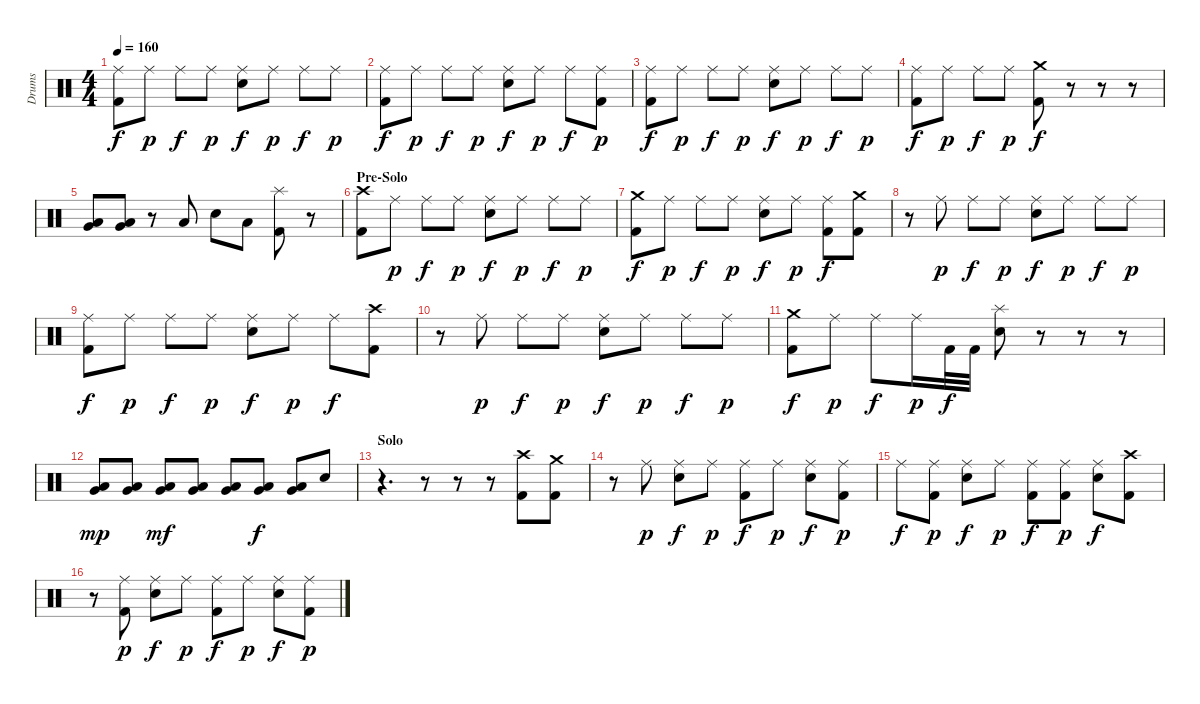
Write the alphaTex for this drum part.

\track ("Drums" "Drums") {instrument percussion}
\staff {score}
\articulation defaults
\ts (4 4)
\tempo 160
\clef neutral
\ks c
("Ride (middle)" "Kick (hit) 2").8{dy f} "Ride (middle)".8{dy p} "Ride (middle)".8{dy f} "Ride (middle)".8{dy p} ("Ride (middle)" "Snare (hit) 2").8{dy f} "Ride (middle)".8{dy p} "Ride (middle)".8{dy f} "Ride (middle)".8{dy p} |
("Ride (middle)" "Kick (hit) 2").8{dy f} "Ride (middle)".8{dy p} "Ride (middle)".8{dy f} "Ride (middle)".8{dy p} ("Ride (middle)" "Snare (hit) 2").8{dy f} "Ride (middle)".8{dy p} "Ride (middle)".8{dy f} ("Ride (middle)" "Kick (hit) 2").8{dy p} |
("Ride (middle)" "Kick (hit) 2").8{dy f} "Ride (middle)".8{dy p} "Ride (middle)".8{dy f} "Ride (middle)".8{dy p} ("Ride (middle)" "Snare (hit) 2").8{dy f} "Ride (middle)".8{dy p} "Ride (middle)".8{dy f} "Ride (middle)".8{dy p} |
("Ride (middle)" "Kick (hit) 2").8{dy f} "Ride (middle)".8{dy p} "Ride (middle)".8{dy f} "Ride (middle)".8{dy p} ("Crash medium (hit)" "Kick (hit) 2").8{dy f} r.8 r.8 r.8 |
("Very Low Tom (hit)" "Low Floor Tom (hit)").8 ("Very Low Tom (hit)" "Low Floor Tom (hit)").8 r.8 "Low Tom (hit)".8 "Snare (hit) 2".8 "Low Tom (hit)".8 ("Splash (hit)" "Kick (hit) 2").8 r.8 |
\section ("" "Pre-Solo")
("Crash high (hit)" "Kick (hit) 2").8 "Ride (middle)".8{dy p} "Ride (middle)".8{dy f} "Ride (middle)".8{dy p} ("Ride (middle)" "Snare (hit) 2").8{dy f} "Ride (middle)".8{dy p} "Ride (middle)".8{dy f} "Ride (middle)".8{dy p} |
("Crash medium (hit)" "Kick (hit) 2").8{dy f} "Ride (middle)".8{dy p} "Ride (middle)".8{dy f} "Ride (middle)".8{dy p} ("Ride (middle)" "Snare (hit) 2").8{dy f} "Ride (middle)".8{dy p} ("Ride (middle)" "Kick (hit) 2").8{dy f} ("Crash medium (hit)" "Kick (hit) 2").8 |
r.8 "Ride (middle)".8{dy p} "Ride (middle)".8{dy f} "Ride (middle)".8{dy p} ("Ride (middle)" "Snare (hit) 2").8{dy f} "Ride (middle)".8{dy p} "Ride (middle)".8{dy f} "Ride (middle)".8{dy p} |
("Ride (middle)" "Kick (hit) 2").8{dy f} "Ride (middle)".8{dy p} "Ride (middle)".8{dy f} "Ride (middle)".8{dy p} ("Ride (middle)" "Snare (hit) 2").8{dy f} "Ride (middle)".8{dy p} "Ride (middle)".8{dy f} ("Crash high (hit)" "Kick (hit) 2").8 |
r.8 "Ride (middle)".8{dy p} "Ride (middle)".8{dy f} "Ride (middle)".8{dy p} ("Ride (middle)" "Snare (hit) 2").8{dy f} "Ride (middle)".8{dy p} "Ride (middle)".8{dy f} "Ride (middle)".8{dy p} |
("Crash medium (hit)" "Kick (hit) 2").8{dy f} "Ride (middle)".8{dy p} "Ride (middle)".8{dy f} "Ride (middle)".16{dy p} "Kick (hit) 2".32{dy f} "Kick (hit) 2".32 ("Splash (hit)" "Snare (hit) 2").8 r.8 r.8 r.8 |
("Low Tom (hit)" "Very Low Tom (hit)").8{dy mp} ("Low Tom (hit)" "Very Low Tom (hit)").8 ("Low Tom (hit)" "Very Low Tom (hit)").8{dy mf} ("Low Tom (hit)" "Very Low Tom (hit)").8 ("Low Tom (hit)" "Very Low Tom (hit)").8 ("Low Tom (hit)" "Very Low Tom (hit)").8{dy f} ("Low Tom (hit)" "Very Low Tom (hit)").8 "Snare (hit) 2".8 |
\section ("" "Solo")
r.4{d} r.8 r.8 r.8 ("Crash high (hit)" "Kick (hit) 2").8 ("Crash medium (hit)" "Kick (hit) 2").8 |
r.8 "Ride (middle)".8{dy p} ("Ride (middle)" "Snare (hit) 2").8{dy f} "Ride (middle)".8{dy p} ("Ride (middle)" "Kick (hit) 2").8{dy f} "Ride (middle)".8{dy p} ("Ride (middle)" "Snare (hit) 2").8{dy f} ("Ride (middle)" "Kick (hit) 2").8{dy p} |
"Ride (middle)".8{dy f} ("Ride (middle)" "Kick (hit) 2").8{dy p} ("Ride (middle)" "Snare (hit) 2").8{dy f} "Ride (middle)".8{dy p} ("Ride (middle)" "Kick (hit) 2").8{dy f} ("Ride (middle)" "Kick (hit) 2").8{dy p} ("Ride (middle)" "Snare (hit) 2").8{dy f} ("Crash high (hit)" "Kick (hit) 2").8 |
r.8 ("Ride (middle)" "Kick (hit) 2").8{dy p} ("Ride (middle)" "Snare (hit) 2").8{dy f} "Ride (middle)".8{dy p} ("Ride (middle)" "Kick (hit) 2").8{dy f} "Ride (middle)".8{dy p} ("Ride (middle)" "Snare (hit) 2").8{dy f} ("Ride (middle)" "Kick (hit) 2").8{dy p}
